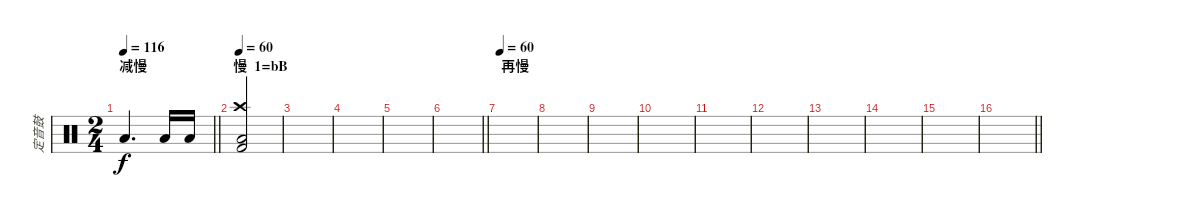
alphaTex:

\track ("定音鼓" "定音鼓") {instrument percussion}
\staff {score}
\articulation defaults
\ts (2 4)
\section ("" "减慢")
\tempo 116
\clef neutral
\barLineRight lightlight
\ks c "Low Floor Tom (hit)".4{d dy f} "Low Floor Tom (hit)".16 "Low Floor Tom (hit)".16
|
\section ("" "慢  1=bB")
\tempo 60
("Crash high (hit)" "Low Floor Tom (hit)" "Kick (hit) 2").2 |
|
|
|
\barLineRight lightlight
|
\section ("" "再慢")
\tempo 60
|
|
|
|
|
|
|
|
|
\barLineRight lightlight
